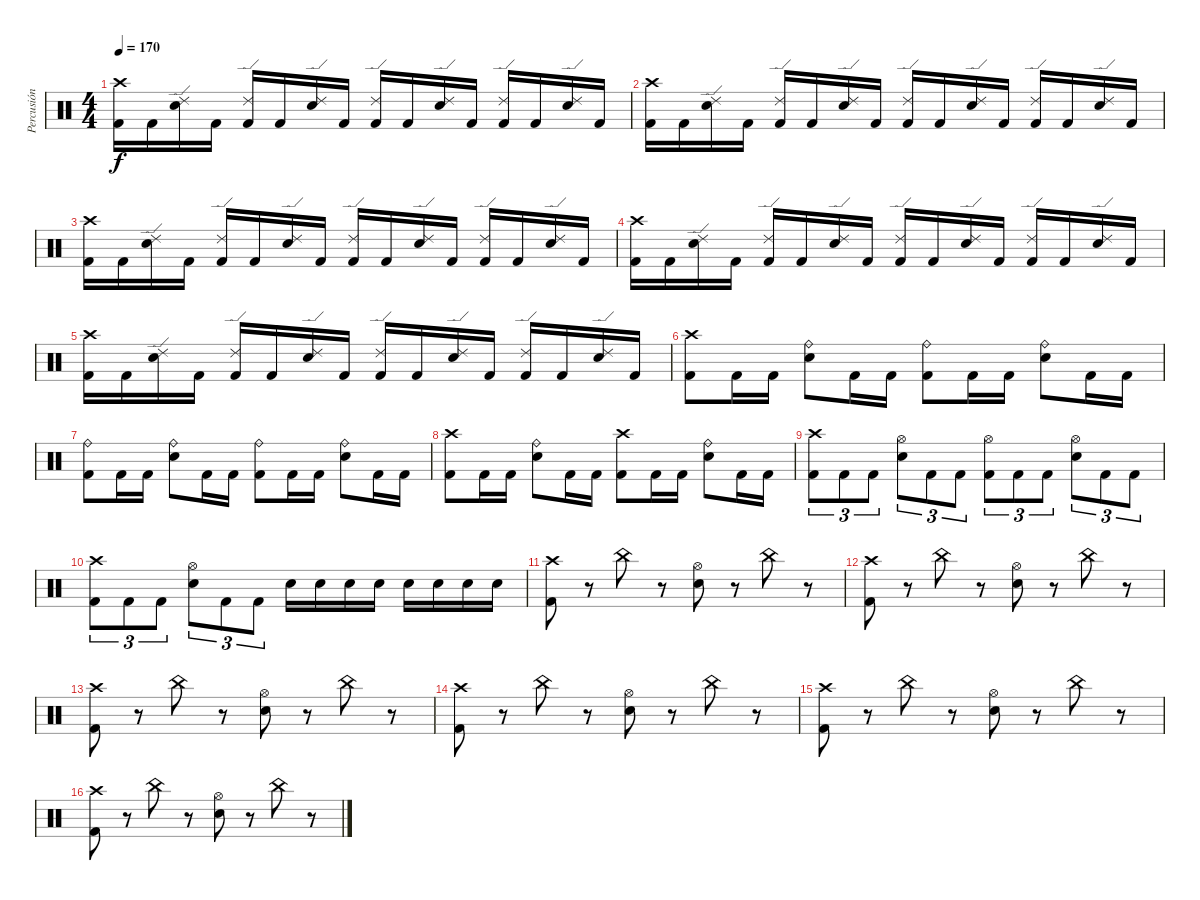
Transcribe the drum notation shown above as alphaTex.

\track ("Percusión" "Percusión") {instrument percussion}
\staff {score}
\articulation defaults
\ts (4 4)
\tempo 170
\clef neutral
\ks c
("Crash high (hit)" "Kick (hit) 2").16{dy f} "Kick (hit) 2".16 ("Ride (edge) 2" "Electric Snare (hit)").16 "Kick (hit) 2".16 ("Ride (edge) 2" "Kick (hit) 2").16 "Kick (hit) 2".16 ("Ride (edge) 2" "Electric Snare (hit)").16 "Kick (hit) 2".16 ("Ride (edge) 2" "Kick (hit) 2").16 "Kick (hit) 2".16 ("Ride (edge) 2" "Electric Snare (hit)").16 "Kick (hit) 2".16 ("Ride (edge) 2" "Kick (hit) 2").16 "Kick (hit) 2".16 ("Ride (edge) 2" "Electric Snare (hit)").16 "Kick (hit) 2".16 |
("Crash high (hit)" "Kick (hit) 2").16 "Kick (hit) 2".16 ("Ride (edge) 2" "Electric Snare (hit)").16 "Kick (hit) 2".16 ("Ride (edge) 2" "Kick (hit) 2").16 "Kick (hit) 2".16 ("Ride (edge) 2" "Electric Snare (hit)").16 "Kick (hit) 2".16 ("Ride (edge) 2" "Kick (hit) 2").16 "Kick (hit) 2".16 ("Ride (edge) 2" "Electric Snare (hit)").16 "Kick (hit) 2".16 ("Ride (edge) 2" "Kick (hit) 2").16 "Kick (hit) 2".16 ("Ride (edge) 2" "Electric Snare (hit)").16 "Kick (hit) 2".16 |
("Crash high (hit)" "Kick (hit) 2").16 "Kick (hit) 2".16 ("Ride (edge) 2" "Electric Snare (hit)").16 "Kick (hit) 2".16 ("Ride (edge) 2" "Kick (hit) 2").16 "Kick (hit) 2".16 ("Ride (edge) 2" "Electric Snare (hit)").16 "Kick (hit) 2".16 ("Ride (edge) 2" "Kick (hit) 2").16 "Kick (hit) 2".16 ("Ride (edge) 2" "Electric Snare (hit)").16 "Kick (hit) 2".16 ("Ride (edge) 2" "Kick (hit) 2").16 "Kick (hit) 2".16 ("Ride (edge) 2" "Electric Snare (hit)").16 "Kick (hit) 2".16 |
("Crash high (hit)" "Kick (hit) 2").16 "Kick (hit) 2".16 ("Ride (edge) 2" "Electric Snare (hit)").16 "Kick (hit) 2".16 ("Ride (edge) 2" "Kick (hit) 2").16 "Kick (hit) 2".16 ("Ride (edge) 2" "Electric Snare (hit)").16 "Kick (hit) 2".16 ("Ride (edge) 2" "Kick (hit) 2").16 "Kick (hit) 2".16 ("Ride (edge) 2" "Electric Snare (hit)").16 "Kick (hit) 2".16 ("Ride (edge) 2" "Kick (hit) 2").16 "Kick (hit) 2".16 ("Ride (edge) 2" "Electric Snare (hit)").16 "Kick (hit) 2".16 |
("Crash high (hit)" "Kick (hit) 2").16 "Kick (hit) 2".16 ("Ride (edge) 2" "Electric Snare (hit)").16 "Kick (hit) 2".16 ("Ride (edge) 2" "Kick (hit) 2").16 "Kick (hit) 2".16 ("Ride (edge) 2" "Electric Snare (hit)").16 "Kick (hit) 2".16 ("Ride (edge) 2" "Kick (hit) 2").16 "Kick (hit) 2".16 ("Ride (edge) 2" "Electric Snare (hit)").16 "Kick (hit) 2".16 ("Ride (edge) 2" "Kick (hit) 2").16 "Kick (hit) 2".16 ("Ride (edge) 2" "Electric Snare (hit)").16 "Kick (hit) 2".16 |
("Crash high (hit)" "Kick (hit) 2").8 "Kick (hit) 2".16 "Kick (hit) 2".16 ("Ride (bell)" "Electric Snare (hit)").8 "Kick (hit) 2".16 "Kick (hit) 2".16 ("Ride (bell)" "Kick (hit) 2").8 "Kick (hit) 2".16 "Kick (hit) 2".16 ("Ride (bell)" "Electric Snare (hit)").8 "Kick (hit) 2".16 "Kick (hit) 2".16 |
("Ride (bell)" "Kick (hit) 2").8 "Kick (hit) 2".16 "Kick (hit) 2".16 ("Ride (bell)" "Electric Snare (hit)").8 "Kick (hit) 2".16 "Kick (hit) 2".16 ("Ride (bell)" "Kick (hit) 2").8 "Kick (hit) 2".16 "Kick (hit) 2".16 ("Ride (bell)" "Electric Snare (hit)").8 "Kick (hit) 2".16 "Kick (hit) 2".16 |
("Crash high (hit)" "Kick (hit) 2").8 "Kick (hit) 2".16 "Kick (hit) 2".16 ("Ride (bell)" "Electric Snare (hit)").8 "Kick (hit) 2".16 "Kick (hit) 2".16 ("Crash high (hit)" "Kick (hit) 2").8 "Kick (hit) 2".16 "Kick (hit) 2".16 ("Ride (bell)" "Electric Snare (hit)").8 "Kick (hit) 2".16 "Kick (hit) 2".16 |
("Crash high (hit)" "Kick (hit) 2").8{tu (3 2)} "Kick (hit) 2".8{tu (3 2)} "Kick (hit) 2".8{tu (3 2)} ("Hi-Hat (open)" "Electric Snare (hit)").8{tu (3 2)} "Kick (hit) 2".8{tu (3 2)} "Kick (hit) 2".8{tu (3 2)} ("Hi-Hat (open)" "Kick (hit) 2").8{tu (3 2)} "Kick (hit) 2".8{tu (3 2)} "Kick (hit) 2".8{tu (3 2)} ("Hi-Hat (open)" "Electric Snare (hit)").8{tu (3 2)} "Kick (hit) 2".8{tu (3 2)} "Kick (hit) 2".8{tu (3 2)} |
("Crash high (hit)" "Kick (hit) 2").8{tu (3 2)} "Kick (hit) 2".8{tu (3 2)} "Kick (hit) 2".8{tu (3 2)} ("Hi-Hat (open)" "Electric Snare (hit)").8{tu (3 2)} "Kick (hit) 2".8{tu (3 2)} "Kick (hit) 2".8{tu (3 2)} "Electric Snare (hit)".16 "Electric Snare (hit)".16 "Electric Snare (hit)".16 "Electric Snare (hit)".16 "Electric Snare (hit)".16 "Electric Snare (hit)".16 "Electric Snare (hit)".16 "Electric Snare (hit)".16 |
("Crash high (hit)" "Kick (hit) 2").8 r.8 "China (hit)".8 r.8 ("Hi-Hat (open)" "Electric Snare (hit)").8 r.8 "China (hit)".8 r.8 |
("Crash high (hit)" "Kick (hit) 2").8 r.8 "China (hit)".8 r.8 ("Hi-Hat (open)" "Electric Snare (hit)").8 r.8 "China (hit)".8 r.8 |
("Crash high (hit)" "Kick (hit) 2").8 r.8 "China (hit)".8 r.8 ("Hi-Hat (open)" "Electric Snare (hit)").8 r.8 "China (hit)".8 r.8 |
("Crash high (hit)" "Kick (hit) 2").8 r.8 "China (hit)".8 r.8 ("Hi-Hat (open)" "Electric Snare (hit)").8 r.8 "China (hit)".8 r.8 |
("Crash high (hit)" "Kick (hit) 2").8 r.8 "China (hit)".8 r.8 ("Hi-Hat (open)" "Electric Snare (hit)").8 r.8 "China (hit)".8 r.8 |
("Crash high (hit)" "Kick (hit) 2").8 r.8 "China (hit)".8 r.8 ("Hi-Hat (open)" "Electric Snare (hit)").8 r.8 "China (hit)".8 r.8
